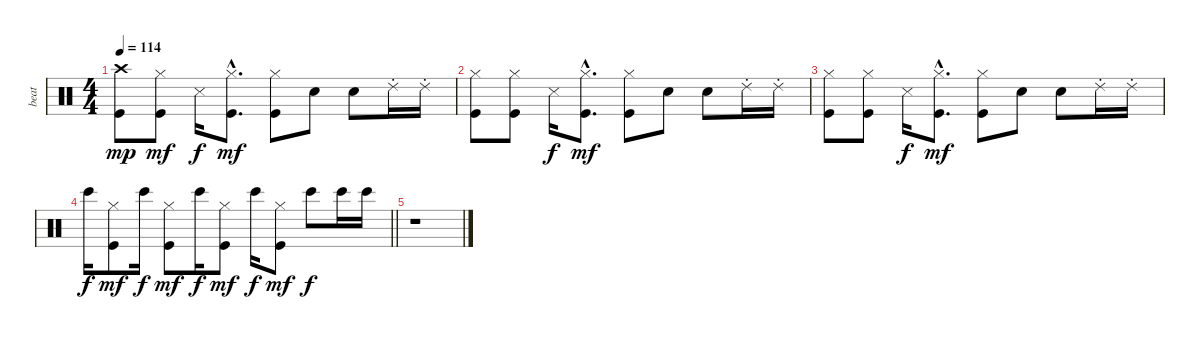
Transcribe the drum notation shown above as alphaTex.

\track ("beat" "beat") {instrument percussion}
\staff {score}
\articulation defaults
\ts (4 4)
\tempo 114
\clef neutral
\ks c
("Kick (hit)" "Crash high (hit)").8{dy mp} ("Kick (hit)" "Hi-Hat (closed)").8{dy mf} "Snare (side stick) 3".16{dy f} ("Kick (hit)"{hac} "Hi-Hat (closed)"{hac}).8{d dy mf} ("Kick (hit)" "Hi-Hat (closed)").8 "Hand Clap (hit)".8 "Hand Clap (hit)".8 "Ride (choke) 2".16 "Ride (choke) 2".16 |
("Kick (hit)" "Hi-Hat (closed)").8 ("Kick (hit)" "Hi-Hat (closed)").8 "Snare (side stick) 3".16{dy f} ("Kick (hit)"{hac} "Hi-Hat (closed)"{hac}).8{d dy mf} ("Kick (hit)" "Hi-Hat (closed)").8 "Hand Clap (hit)".8 "Hand Clap (hit)".8 "Ride (choke) 2".16 "Ride (choke) 2".16 |
("Kick (hit)" "Hi-Hat (closed)").8 ("Kick (hit)" "Hi-Hat (closed)").8 "Snare (side stick) 3".16{dy f} ("Kick (hit)"{hac} "Hi-Hat (closed)"{hac}).8{d dy mf} ("Kick (hit)" "Hi-Hat (closed)").8 "Hand Clap (hit)".8 "Hand Clap (hit)".8 "Ride (choke) 2".16 "Ride (choke) 2".16 |
\barLineRight lightlight "Bongo High (hit)".16{dy f}
("Kick (hit)" "Hi-Hat (closed)").8{dy mf} "Bongo High (hit)".16{dy f} ("Kick (hit)" "Hi-Hat (closed)").8{dy mf} "Bongo High (hit)".16{dy f} ("Kick (hit)" "Hi-Hat (closed)").8{dy mf} "Bongo High (hit)".16{dy f} ("Kick (hit)" "Hi-Hat (closed)").8{dy mf} "Bongo High (hit)".8{dy f} "Bongo High (hit)".16 "Bongo High (hit)".16 |
r.1
